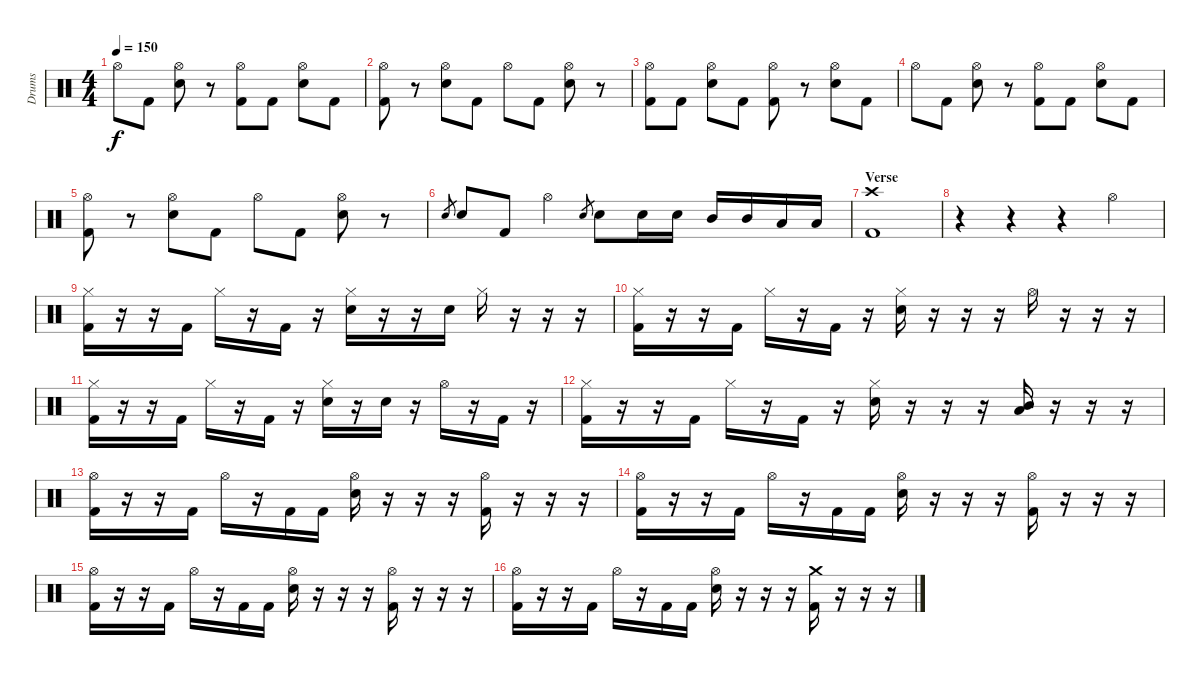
\track ("Drums" "Drums") {instrument percussion}
\staff {score}
\articulation defaults
\ts (4 4)
\tempo 150
\clef neutral
\ks c "Hi-Hat (open)".8{dy f} "Kick (hit) 2".8
("Hi-Hat (open)" "Electric Snare (hit)").8 r.8 ("Hi-Hat (open)" "Kick (hit) 2").8 "Kick (hit) 2".8 ("Hi-Hat (open)" "Electric Snare (hit)").8 "Kick (hit) 2".8 |
("Hi-Hat (open)" "Kick (hit) 2").8 r.8 ("Hi-Hat (open)" "Electric Snare (hit)").8 "Kick (hit) 2".8 "Hi-Hat (open)".8 "Kick (hit) 2".8 ("Hi-Hat (open)" "Electric Snare (hit)").8 r.8 |
("Hi-Hat (open)" "Kick (hit) 2").8 "Kick (hit) 2".8 ("Hi-Hat (open)" "Electric Snare (hit)").8 "Kick (hit) 2".8 ("Hi-Hat (open)" "Kick (hit) 2").8 r.8 ("Hi-Hat (open)" "Electric Snare (hit)").8 "Kick (hit) 2".8 |
"Hi-Hat (open)".8 "Kick (hit) 2".8 ("Hi-Hat (open)" "Electric Snare (hit)").8 r.8 ("Hi-Hat (open)" "Kick (hit) 2").8 "Kick (hit) 2".8 ("Hi-Hat (open)" "Electric Snare (hit)").8 "Kick (hit) 2".8 |
("Hi-Hat (open)" "Kick (hit) 2").8 r.8 ("Hi-Hat (open)" "Electric Snare (hit)").8 "Kick (hit) 2".8 "Hi-Hat (open)".8 "Kick (hit) 2".8 ("Hi-Hat (open)" "Electric Snare (hit)").8 r.8 |
"Electric Snare (hit)".8{gr} "Electric Snare (hit)".8 "Kick (hit) 2".8 "Hi-Hat (open)".4 "Electric Snare (hit)".8{gr} "Electric Snare (hit)".8 "Electric Snare (hit)".16 "Electric Snare (hit)".16 "Mid Tom (hit)".16 "Mid Tom (hit)".16 "Low Floor Tom (hit)".16 "Low Floor Tom (hit)".16 |
\section ("" "Verse")
("Crash high (hit)" "Kick (hit) 2").1 |
r.4 r.4 r.4 "Hi-Hat (open)".4 |
("Hi-Hat (closed)" "Kick (hit) 2").16 r.16 r.16 "Kick (hit) 2".16 "Hi-Hat (closed)".16 r.16 "Kick (hit) 2".16 r.16 ("Hi-Hat (closed)" "Electric Snare (hit)").16 r.16 r.16 "Electric Snare (hit)".16 "Hi-Hat (closed)".16 r.16 r.16 r.16 |
("Hi-Hat (closed)" "Kick (hit) 2").16 r.16 r.16 "Kick (hit) 2".16 "Hi-Hat (closed)".16 r.16 "Kick (hit) 2".16 r.16 ("Hi-Hat (closed)" "Electric Snare (hit)").16 r.16 r.16 r.16 "Hi-Hat (open)".16 r.16 r.16 r.16 |
("Hi-Hat (closed)" "Kick (hit) 2").16 r.16 r.16 "Kick (hit) 2".16 "Hi-Hat (closed)".16 r.16 "Kick (hit) 2".16 r.16 ("Hi-Hat (closed)" "Electric Snare (hit)").16 r.16 "Electric Snare (hit)".16 r.16 "Hi-Hat (open)".16 r.16 "Kick (hit) 2".16 r.16 |
("Hi-Hat (closed)" "Kick (hit) 2").16 r.16 r.16 "Kick (hit) 2".16 "Hi-Hat (closed)".16 r.16 "Kick (hit) 2".16 r.16 ("Hi-Hat (closed)" "Electric Snare (hit)").16 r.16 r.16 r.16 ("Mid Tom (hit)" "Low Floor Tom (hit)").16 r.16 r.16 r.16 |
("Hi-Hat (open)" "Kick (hit) 2").16 r.16 r.16 "Kick (hit) 2".16 "Hi-Hat (open)".16 r.16 "Kick (hit) 2".16 "Kick (hit) 2".16 ("Hi-Hat (open)" "Electric Snare (hit)").16 r.16 r.16 r.16 ("Hi-Hat (open)" "Kick (hit) 2").16 r.16 r.16 r.16 |
("Hi-Hat (open)" "Kick (hit) 2").16 r.16 r.16 "Kick (hit) 2".16 "Hi-Hat (open)".16 r.16 "Kick (hit) 2".16 "Kick (hit) 2".16 ("Hi-Hat (open)" "Electric Snare (hit)").16 r.16 r.16 r.16 ("Hi-Hat (open)" "Kick (hit) 2").16 r.16 r.16 r.16 |
("Hi-Hat (open)" "Kick (hit) 2").16 r.16 r.16 "Kick (hit) 2".16 "Hi-Hat (open)".16 r.16 "Kick (hit) 2".16 "Kick (hit) 2".16 ("Hi-Hat (open)" "Electric Snare (hit)").16 r.16 r.16 r.16 ("Hi-Hat (open)" "Kick (hit) 2").16 r.16 r.16 r.16 |
("Hi-Hat (open)" "Kick (hit) 2").16 r.16 r.16 "Kick (hit) 2".16 "Hi-Hat (open)".16 r.16 "Kick (hit) 2".16 "Kick (hit) 2".16 ("Hi-Hat (open)" "Electric Snare (hit)").16 r.16 r.16 r.16 ("Crash medium (hit)" "Kick (hit) 2").16 r.16 r.16 r.16
